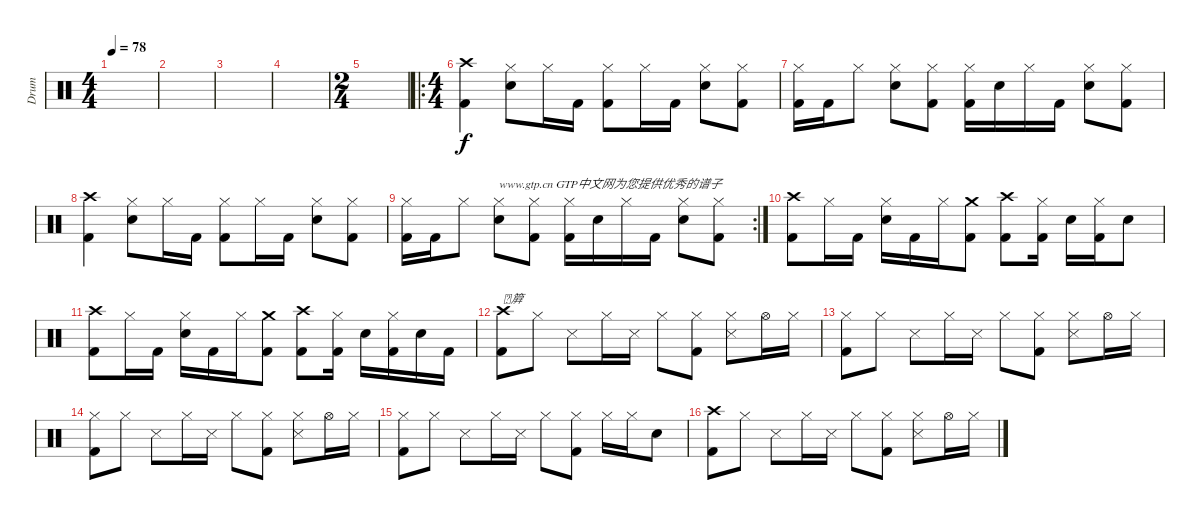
\track ("Drum" "Drum") {instrument percussion}
\staff {score}
\articulation defaults
\ts (4 4)
\tempo 78
\clef neutral
\ks c
|
|
|
|
\ts (2 4)
|
\ro
\ts (4 4)
("Crash high (hit)" "Kick (hit) 2").4 ("Hi-Hat (closed)" "Snare (hit) 2").8 "Hi-Hat (closed)".16 "Kick (hit) 2".16 ("Hi-Hat (closed)" "Kick (hit) 2").8 "Hi-Hat (closed)".16 "Kick (hit) 2".16 ("Hi-Hat (closed)" "Snare (hit) 2").8 ("Hi-Hat (closed)" "Kick (hit) 2").8 |
("Hi-Hat (closed)" "Kick (hit) 2").16 "Kick (hit) 2".16 "Hi-Hat (closed)".8 ("Hi-Hat (closed)" "Snare (hit) 2").8 ("Hi-Hat (closed)" "Kick (hit) 2").8 ("Hi-Hat (closed)" "Kick (hit) 2").16 "Snare (hit) 2".16 "Hi-Hat (closed)".16 "Kick (hit) 2".16 ("Hi-Hat (closed)" "Snare (hit) 2").8 ("Hi-Hat (closed)" "Kick (hit) 2").8 |
("Crash high (hit)" "Kick (hit) 2").4 ("Hi-Hat (closed)" "Snare (hit) 2").8 "Hi-Hat (closed)".16 "Kick (hit) 2".16 ("Hi-Hat (closed)" "Kick (hit) 2").8 "Hi-Hat (closed)".16 "Kick (hit) 2".16 ("Hi-Hat (closed)" "Snare (hit) 2").8 ("Hi-Hat (closed)" "Kick (hit) 2").8 |
\rc 2
("Hi-Hat (closed)" "Kick (hit) 2").16 "Kick (hit) 2".16 "Hi-Hat (closed)".8 ("Hi-Hat (closed)" "Snare (hit) 2").8{txt "www.gtp.cn GTP中文网为您提供优秀的谱子"} ("Hi-Hat (closed)" "Kick (hit) 2").8 ("Hi-Hat (closed)" "Kick (hit) 2").16 "Snare (hit) 2".16 "Hi-Hat (closed)".16 "Kick (hit) 2".16 ("Hi-Hat (closed)" "Snare (hit) 2").8 ("Hi-Hat (closed)" "Kick (hit) 2").8 |
("Crash high (hit)" "Kick (hit) 2").8 "Hi-Hat (closed)".16 "Kick (hit) 2".16 ("Hi-Hat (closed)" "Snare (hit) 2").16 "Kick (hit) 2".16 "Hi-Hat (closed)".16 ("Crash medium (hit)" "Kick (hit) 2").8 ("Crash high (hit)" "Kick (hit) 2").8 ("Hi-Hat (closed)" "Kick (hit) 2").16 "Snare (hit) 2".16 ("Hi-Hat (closed)" "Kick (hit) 2").16 "Snare (hit) 2".8 |
("Crash high (hit)" "Kick (hit) 2").8 "Hi-Hat (closed)".16 "Kick (hit) 2".16 ("Hi-Hat (closed)" "Snare (hit) 2").16 "Kick (hit) 2".16 "Hi-Hat (closed)".16 ("Crash medium (hit)" "Kick (hit) 2").8 ("Crash high (hit)" "Kick (hit) 2").8 ("Hi-Hat (closed)" "Kick (hit) 2").16 "Snare (hit) 2".16 ("Hi-Hat (closed)" "Kick (hit) 2").16 "Snare (hit) 2".16 "Kick (hit) 2".16 |
("Crash high (hit)" "Kick (hit) 2").8{txt "簈"} "Hi-Hat (closed)".8 "Metronome (hit)".8 "Hi-Hat (closed)".16 "Metronome (hit)".16 "Hi-Hat (closed)".8 ("Hi-Hat (closed)" "Kick (hit) 2").8 ("Hi-Hat (closed)" "Metronome (hit)").8 "Hi-Hat (open)".16 "Hi-Hat (closed)".16 |
("Hi-Hat (closed)" "Kick (hit) 2").8 "Hi-Hat (closed)".8 "Metronome (hit)".8 "Hi-Hat (closed)".16 "Metronome (hit)".16 "Hi-Hat (closed)".8 ("Hi-Hat (closed)" "Kick (hit) 2").8 ("Hi-Hat (closed)" "Metronome (hit)").8 "Hi-Hat (open)".16 "Hi-Hat (closed)".16 |
("Hi-Hat (closed)" "Kick (hit) 2").8 "Hi-Hat (closed)".8 "Metronome (hit)".8 "Hi-Hat (closed)".16 "Metronome (hit)".16 "Hi-Hat (closed)".8 ("Hi-Hat (closed)" "Kick (hit) 2").8 ("Hi-Hat (closed)" "Metronome (hit)").8 "Hi-Hat (open)".16 "Hi-Hat (closed)".16 |
("Hi-Hat (closed)" "Kick (hit) 2").8 "Hi-Hat (closed)".8 "Metronome (hit)".8 "Hi-Hat (closed)".16 "Metronome (hit)".16 "Hi-Hat (closed)".8 ("Hi-Hat (closed)" "Kick (hit) 2").8 "Hi-Hat (closed)".16 "Hi-Hat (closed)".16 "Snare (hit) 2".8 |
("Crash high (hit)" "Kick (hit) 2").8 "Hi-Hat (closed)".8 "Metronome (hit)".8 "Hi-Hat (closed)".16 "Metronome (hit)".16 "Hi-Hat (closed)".8 ("Hi-Hat (closed)" "Kick (hit) 2").8 ("Hi-Hat (closed)" "Metronome (hit)").8 "Hi-Hat (open)".16 "Hi-Hat (closed)".16
